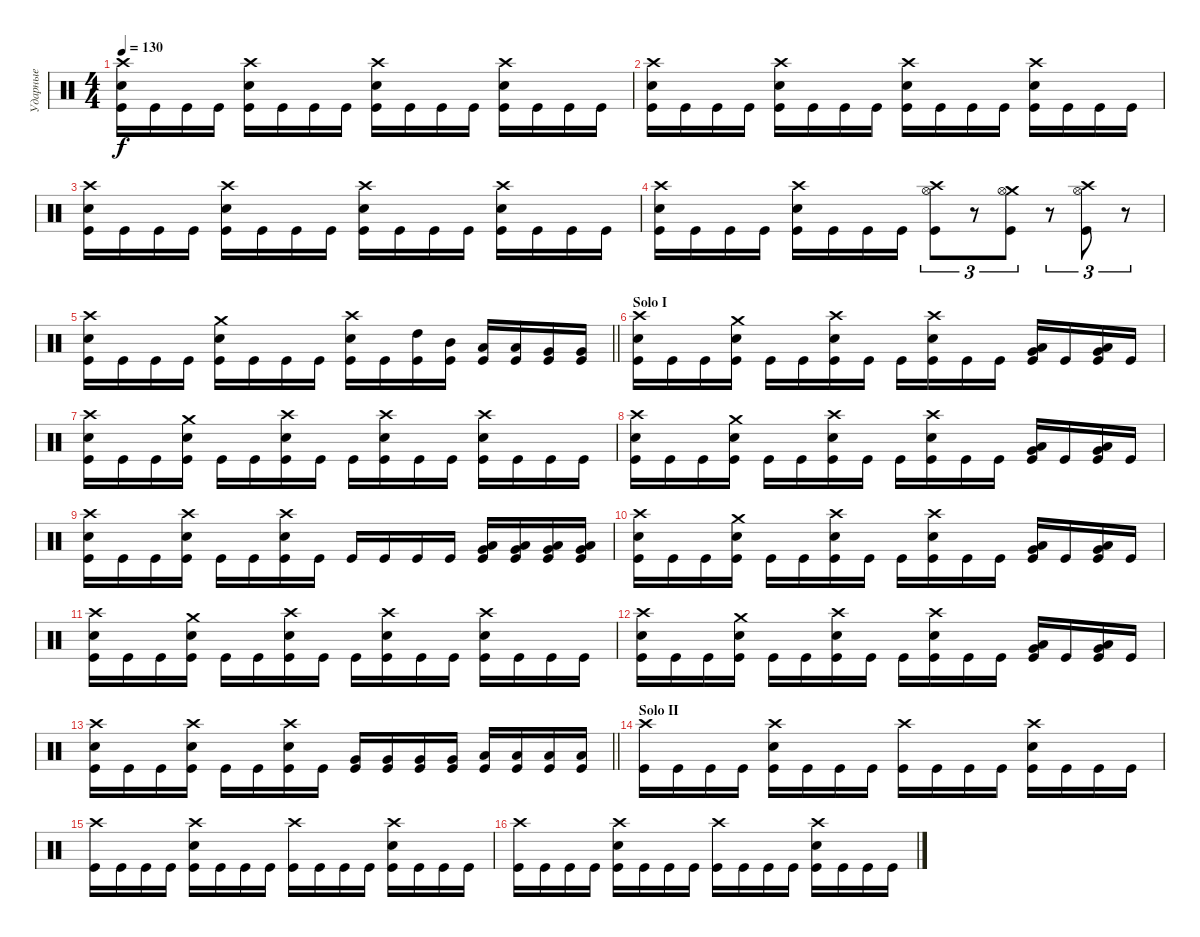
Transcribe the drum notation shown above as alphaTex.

\track ("Ударные" "Ударные") {instrument percussion}
\staff {score}
\articulation defaults
\ts (4 4)
\tempo 130
\clef neutral
\ks c
("Crash high (hit)" "Electric Snare (hit)" "Kick (hit)").16{dy f} "Kick (hit)".16 "Kick (hit)".16 "Kick (hit)".16 ("Crash high (hit)" "Electric Snare (hit)" "Kick (hit)").16 "Kick (hit)".16 "Kick (hit)".16 "Kick (hit)".16 ("Crash high (hit)" "Electric Snare (hit)" "Kick (hit)").16 "Kick (hit)".16 "Kick (hit)".16 "Kick (hit)".16 ("Crash high (hit)" "Electric Snare (hit)" "Kick (hit)").16 "Kick (hit)".16 "Kick (hit)".16 "Kick (hit)".16 |
("Crash high (hit)" "Electric Snare (hit)" "Kick (hit)").16 "Kick (hit)".16 "Kick (hit)".16 "Kick (hit)".16 ("Crash high (hit)" "Electric Snare (hit)" "Kick (hit)").16 "Kick (hit)".16 "Kick (hit)".16 "Kick (hit)".16 ("Crash high (hit)" "Electric Snare (hit)" "Kick (hit)").16 "Kick (hit)".16 "Kick (hit)".16 "Kick (hit)".16 ("Crash high (hit)" "Electric Snare (hit)" "Kick (hit)").16 "Kick (hit)".16 "Kick (hit)".16 "Kick (hit)".16 |
("Crash high (hit)" "Electric Snare (hit)" "Kick (hit)").16 "Kick (hit)".16 "Kick (hit)".16 "Kick (hit)".16 ("Crash high (hit)" "Electric Snare (hit)" "Kick (hit)").16 "Kick (hit)".16 "Kick (hit)".16 "Kick (hit)".16 ("Crash high (hit)" "Electric Snare (hit)" "Kick (hit)").16 "Kick (hit)".16 "Kick (hit)".16 "Kick (hit)".16 ("Crash high (hit)" "Electric Snare (hit)" "Kick (hit)").16 "Kick (hit)".16 "Kick (hit)".16 "Kick (hit)".16 |
("Crash high (hit)" "Electric Snare (hit)" "Kick (hit)").16 "Kick (hit)".16 "Kick (hit)".16 "Kick (hit)".16 ("Crash high (hit)" "Electric Snare (hit)" "Kick (hit)").16 "Kick (hit)".16 "Kick (hit)".16 "Kick (hit)".16 ("Crash high (hit)" "Hi-Hat (open)" "Kick (hit)").8{tu (3 2)} r.8{tu (3 2)} ("Crash medium (hit)" "Hi-Hat (open)" "Kick (hit)").8{tu (3 2)} r.8{tu (3 2)} ("Crash high (hit)" "Hi-Hat (open)" "Kick (hit)").8{tu (3 2)} r.8{tu (3 2)} |
\barLineRight lightlight
("Crash high (hit)" "Electric Snare (hit)" "Kick (hit)").16 "Kick (hit)".16 "Kick (hit)".16 "Kick (hit)".16 ("Crash medium (hit)" "Electric Snare (hit)" "Kick (hit)").16 "Kick (hit)".16 "Kick (hit)".16 "Kick (hit)".16 ("Crash high (hit)" "Electric Snare (hit)" "Kick (hit)").16 "Kick (hit)".16 ("High Tom (hit)" "Kick (hit)").16 ("Mid Tom (hit)" "Kick (hit)").16 ("Low Tom (hit)" "Kick (hit)").16 ("Low Tom (hit)" "Kick (hit)").16 ("Very Low Tom (hit)" "Kick (hit)").16 ("Very Low Tom (hit)" "Kick (hit)").16 |
\section ("" "Solo I")
("Crash high (hit)" "Electric Snare (hit)" "Kick (hit)").16 "Kick (hit)".16 "Kick (hit)".16 ("Crash medium (hit)" "Electric Snare (hit)" "Kick (hit)").16 "Kick (hit)".16 "Kick (hit)".16 ("Crash high (hit)" "Electric Snare (hit)" "Kick (hit)").16 "Kick (hit)".16 "Kick (hit)".16 ("Crash high (hit)" "Electric Snare (hit)" "Kick (hit)").16 "Kick (hit)".16 "Kick (hit)".16 ("Very Low Tom (hit)" "Low Floor Tom (hit)" "Kick (hit)").16 "Kick (hit)".16 ("Very Low Tom (hit)" "Low Floor Tom (hit)" "Kick (hit)").16 "Kick (hit)".16 |
("Crash high (hit)" "Electric Snare (hit)" "Kick (hit)").16 "Kick (hit)".16 "Kick (hit)".16 ("Crash medium (hit)" "Electric Snare (hit)" "Kick (hit)").16 "Kick (hit)".16 "Kick (hit)".16 ("Crash high (hit)" "Electric Snare (hit)" "Kick (hit)").16 "Kick (hit)".16 "Kick (hit)".16 ("Crash high (hit)" "Electric Snare (hit)" "Kick (hit)").16 "Kick (hit)".16 "Kick (hit)".16 ("Crash high (hit)" "Electric Snare (hit)" "Kick (hit)").16 "Kick (hit)".16 "Kick (hit)".16 "Kick (hit)".16 |
("Crash high (hit)" "Electric Snare (hit)" "Kick (hit)").16 "Kick (hit)".16 "Kick (hit)".16 ("Crash medium (hit)" "Electric Snare (hit)" "Kick (hit)").16 "Kick (hit)".16 "Kick (hit)".16 ("Crash high (hit)" "Electric Snare (hit)" "Kick (hit)").16 "Kick (hit)".16 "Kick (hit)".16 ("Crash high (hit)" "Electric Snare (hit)" "Kick (hit)").16 "Kick (hit)".16 "Kick (hit)".16 ("Very Low Tom (hit)" "Low Floor Tom (hit)" "Kick (hit)").16 "Kick (hit)".16 ("Very Low Tom (hit)" "Low Floor Tom (hit)" "Kick (hit)").16 "Kick (hit)".16 |
("Crash high (hit)" "Electric Snare (hit)" "Kick (hit)").16 "Kick (hit)".16 "Kick (hit)".16 ("Crash high (hit)" "Electric Snare (hit)" "Kick (hit)").16 "Kick (hit)".16 "Kick (hit)".16 ("Crash high (hit)" "Electric Snare (hit)" "Kick (hit)").16 "Kick (hit)".16 "Kick (hit)".16 "Kick (hit)".16 "Kick (hit)".16 "Kick (hit)".16 ("Very Low Tom (hit)" "Low Floor Tom (hit)" "Kick (hit)").16 ("Very Low Tom (hit)" "Low Floor Tom (hit)" "Kick (hit)").16 ("Very Low Tom (hit)" "Low Floor Tom (hit)" "Kick (hit)").16 ("Very Low Tom (hit)" "Low Floor Tom (hit)" "Kick (hit)").16 |
("Crash high (hit)" "Electric Snare (hit)" "Kick (hit)").16 "Kick (hit)".16 "Kick (hit)".16 ("Crash medium (hit)" "Electric Snare (hit)" "Kick (hit)").16 "Kick (hit)".16 "Kick (hit)".16 ("Crash high (hit)" "Electric Snare (hit)" "Kick (hit)").16 "Kick (hit)".16 "Kick (hit)".16 ("Crash high (hit)" "Electric Snare (hit)" "Kick (hit)").16 "Kick (hit)".16 "Kick (hit)".16 ("Very Low Tom (hit)" "Low Floor Tom (hit)" "Kick (hit)").16 "Kick (hit)".16 ("Very Low Tom (hit)" "Low Floor Tom (hit)" "Kick (hit)").16 "Kick (hit)".16 |
("Crash high (hit)" "Electric Snare (hit)" "Kick (hit)").16 "Kick (hit)".16 "Kick (hit)".16 ("Crash medium (hit)" "Electric Snare (hit)" "Kick (hit)").16 "Kick (hit)".16 "Kick (hit)".16 ("Crash high (hit)" "Electric Snare (hit)" "Kick (hit)").16 "Kick (hit)".16 "Kick (hit)".16 ("Crash high (hit)" "Electric Snare (hit)" "Kick (hit)").16 "Kick (hit)".16 "Kick (hit)".16 ("Crash high (hit)" "Electric Snare (hit)" "Kick (hit)").16 "Kick (hit)".16 "Kick (hit)".16 "Kick (hit)".16 |
("Crash high (hit)" "Electric Snare (hit)" "Kick (hit)").16 "Kick (hit)".16 "Kick (hit)".16 ("Crash medium (hit)" "Electric Snare (hit)" "Kick (hit)").16 "Kick (hit)".16 "Kick (hit)".16 ("Crash high (hit)" "Electric Snare (hit)" "Kick (hit)").16 "Kick (hit)".16 "Kick (hit)".16 ("Crash high (hit)" "Electric Snare (hit)" "Kick (hit)").16 "Kick (hit)".16 "Kick (hit)".16 ("Very Low Tom (hit)" "Low Floor Tom (hit)" "Kick (hit)").16 "Kick (hit)".16 ("Very Low Tom (hit)" "Low Floor Tom (hit)" "Kick (hit)").16 "Kick (hit)".16 |
\barLineRight lightlight
("Crash high (hit)" "Electric Snare (hit)" "Kick (hit)").16 "Kick (hit)".16 "Kick (hit)".16 ("Crash high (hit)" "Electric Snare (hit)" "Kick (hit)").16 "Kick (hit)".16 "Kick (hit)".16 ("Crash high (hit)" "Electric Snare (hit)" "Kick (hit)").16 "Kick (hit)".16 ("Very Low Tom (hit)" "Kick (hit)").16 ("Very Low Tom (hit)" "Kick (hit)").16 ("Very Low Tom (hit)" "Kick (hit)").16 ("Very Low Tom (hit)" "Kick (hit)").16 ("Low Floor Tom (hit)" "Kick (hit)").16 ("Low Floor Tom (hit)" "Kick (hit)").16 ("Low Floor Tom (hit)" "Kick (hit)").16 ("Low Floor Tom (hit)" "Kick (hit)").16 |
\section ("" "Solo II")
("Crash high (hit)" "Kick (hit)").16 "Kick (hit)".16 "Kick (hit)".16 "Kick (hit)".16 ("Crash high (hit)" "Electric Snare (hit)" "Kick (hit)").16 "Kick (hit)".16 "Kick (hit)".16 "Kick (hit)".16 ("Crash high (hit)" "Kick (hit)").16 "Kick (hit)".16 "Kick (hit)".16 "Kick (hit)".16 ("Crash high (hit)" "Electric Snare (hit)" "Kick (hit)").16 "Kick (hit)".16 "Kick (hit)".16 "Kick (hit)".16 |
("Crash high (hit)" "Kick (hit)").16 "Kick (hit)".16 "Kick (hit)".16 "Kick (hit)".16 ("Crash high (hit)" "Electric Snare (hit)" "Kick (hit)").16 "Kick (hit)".16 "Kick (hit)".16 "Kick (hit)".16 ("Crash high (hit)" "Kick (hit)").16 "Kick (hit)".16 "Kick (hit)".16 "Kick (hit)".16 ("Crash high (hit)" "Electric Snare (hit)" "Kick (hit)").16 "Kick (hit)".16 "Kick (hit)".16 "Kick (hit)".16 |
("Crash high (hit)" "Kick (hit)").16 "Kick (hit)".16 "Kick (hit)".16 "Kick (hit)".16 ("Crash high (hit)" "Electric Snare (hit)" "Kick (hit)").16 "Kick (hit)".16 "Kick (hit)".16 "Kick (hit)".16 ("Crash high (hit)" "Kick (hit)").16 "Kick (hit)".16 "Kick (hit)".16 "Kick (hit)".16 ("Crash high (hit)" "Electric Snare (hit)" "Kick (hit)").16 "Kick (hit)".16 "Kick (hit)".16 "Kick (hit)".16
